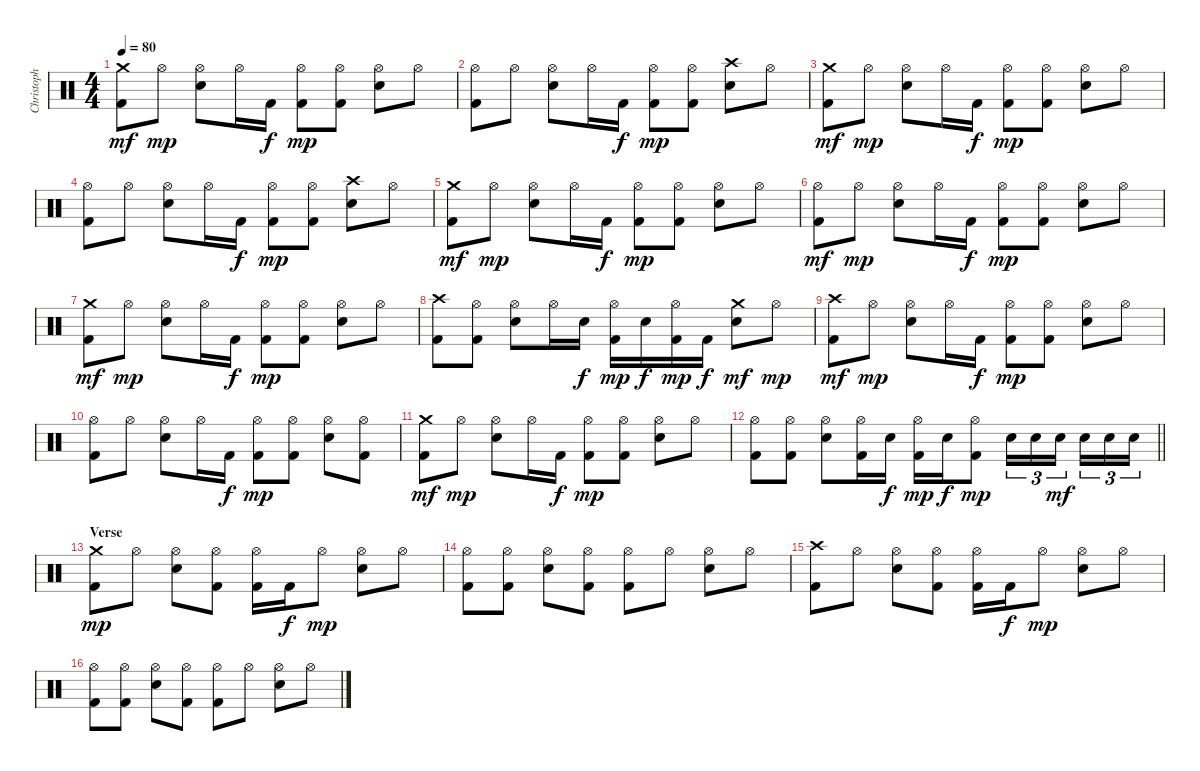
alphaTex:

\track ("Christoph Schneider // Drums" "Christoph ") {instrument percussion}
\staff {score}
\articulation defaults
\ts (4 4)
\tempo 80
\clef neutral
\ks c
("Crash medium (hit)" "Kick (hit) 2").8{dy mf} "Hi-Hat (open)".8{dy mp} ("Hi-Hat (open)" "Snare (hit) 2").8 "Hi-Hat (open)".16 "Kick (hit) 2".16{dy f} ("Hi-Hat (open)" "Kick (hit) 2").8{dy mp} ("Hi-Hat (open)" "Kick (hit) 2").8 ("Hi-Hat (open)" "Snare (hit) 2").8 "Hi-Hat (open)".8 |
("Hi-Hat (open)" "Kick (hit) 2").8 "Hi-Hat (open)".8 ("Hi-Hat (open)" "Snare (hit) 2").8 "Hi-Hat (open)".16 "Kick (hit) 2".16{dy f} ("Hi-Hat (open)" "Kick (hit) 2").8{dy mp} ("Hi-Hat (open)" "Kick (hit) 2").8 ("Crash high (hit)" "Snare (hit) 2").8 "Hi-Hat (open)".8 |
("Crash medium (hit)" "Kick (hit) 2").8{dy mf} "Hi-Hat (open)".8{dy mp} ("Hi-Hat (open)" "Snare (hit) 2").8 "Hi-Hat (open)".16 "Kick (hit) 2".16{dy f} ("Hi-Hat (open)" "Kick (hit) 2").8{dy mp} ("Hi-Hat (open)" "Kick (hit) 2").8 ("Hi-Hat (open)" "Snare (hit) 2").8 "Hi-Hat (open)".8 |
("Hi-Hat (open)" "Kick (hit) 2").8 "Hi-Hat (open)".8 ("Hi-Hat (open)" "Snare (hit) 2").8 "Hi-Hat (open)".16 "Kick (hit) 2".16{dy f} ("Hi-Hat (open)" "Kick (hit) 2").8{dy mp} ("Hi-Hat (open)" "Kick (hit) 2").8 ("Crash high (hit)" "Snare (hit) 2").8 "Hi-Hat (open)".8 |
("Crash medium (hit)" "Kick (hit) 2").8{dy mf} "Hi-Hat (open)".8{dy mp} ("Hi-Hat (open)" "Snare (hit) 2").8 "Hi-Hat (open)".16 "Kick (hit) 2".16{dy f} ("Hi-Hat (open)" "Kick (hit) 2").8{dy mp} ("Hi-Hat (open)" "Kick (hit) 2").8 ("Hi-Hat (open)" "Snare (hit) 2").8 "Hi-Hat (open)".8 |
("Hi-Hat (open)" "Kick (hit) 2").8{dy mf} "Hi-Hat (open)".8{dy mp} ("Hi-Hat (open)" "Snare (hit) 2").8 "Hi-Hat (open)".16 "Kick (hit) 2".16{dy f} ("Hi-Hat (open)" "Kick (hit) 2").8{dy mp} ("Hi-Hat (open)" "Kick (hit) 2").8 ("Hi-Hat (open)" "Snare (hit) 2").8 "Hi-Hat (open)".8 |
("Crash medium (hit)" "Kick (hit) 2").8{dy mf} "Hi-Hat (open)".8{dy mp} ("Hi-Hat (open)" "Snare (hit) 2").8 "Hi-Hat (open)".16 "Kick (hit) 2".16{dy f} ("Hi-Hat (open)" "Kick (hit) 2").8{dy mp} ("Hi-Hat (open)" "Kick (hit) 2").8 ("Hi-Hat (open)" "Snare (hit) 2").8 "Hi-Hat (open)".8 |
("Crash high (hit)" "Kick (hit) 2").8 ("Hi-Hat (open)" "Kick (hit) 2").8 ("Hi-Hat (open)" "Snare (hit) 2").8 "Hi-Hat (open)".16 "Snare (hit) 2".16{dy f} ("Hi-Hat (open)" "Kick (hit) 2").16{dy mp} "Snare (hit) 2".16{dy f} ("Hi-Hat (open)" "Kick (hit) 2").16{dy mp} "Kick (hit) 2".16{dy f} ("Crash medium (hit)" "Snare (hit) 2").8{dy mf} "Hi-Hat (open)".8{dy mp} |
("Crash high (hit)" "Kick (hit) 2").8{dy mf} "Hi-Hat (open)".8{dy mp} ("Hi-Hat (open)" "Snare (hit) 2").8 "Hi-Hat (open)".16 "Kick (hit) 2".16{dy f} ("Hi-Hat (open)" "Kick (hit) 2").8{dy mp} ("Hi-Hat (open)" "Kick (hit) 2").8 ("Hi-Hat (open)" "Snare (hit) 2").8 "Hi-Hat (open)".8 |
("Hi-Hat (open)" "Kick (hit) 2").8 "Hi-Hat (open)".8 ("Hi-Hat (open)" "Snare (hit) 2").8 "Hi-Hat (open)".16 "Kick (hit) 2".16{dy f} ("Hi-Hat (open)" "Kick (hit) 2").8{dy mp} ("Hi-Hat (open)" "Kick (hit) 2").8 ("Hi-Hat (open)" "Snare (hit) 2").8 ("Hi-Hat (open)" "Kick (hit) 2").8 |
("Crash medium (hit)" "Kick (hit) 2").8{dy mf} "Hi-Hat (open)".8{dy mp} ("Hi-Hat (open)" "Snare (hit) 2").8 "Hi-Hat (open)".16 "Kick (hit) 2".16{dy f} ("Hi-Hat (open)" "Kick (hit) 2").8{dy mp} ("Hi-Hat (open)" "Kick (hit) 2").8 ("Hi-Hat (open)" "Snare (hit) 2").8 "Hi-Hat (open)".8 |
\barLineRight lightlight
("Hi-Hat (open)" "Kick (hit) 2").8 ("Hi-Hat (open)" "Kick (hit) 2").8 ("Hi-Hat (open)" "Snare (hit) 2").8 ("Hi-Hat (open)" "Kick (hit) 2").16 "Snare (hit) 2".16{dy f} ("Hi-Hat (open)" "Kick (hit) 2").16{dy mp} "Snare (hit) 2".16{dy f} ("Hi-Hat (open)" "Kick (hit) 2").8{dy mp} "Snare (hit) 2".16{tu (3 2)} "Snare (hit) 2".16{tu (3 2)} "Snare (hit) 2".16{tu (3 2) dy mf beam splitsecondary} "Snare (hit) 2".16{tu (3 2)} "Snare (hit) 2".16{tu (3 2)} "Snare (hit) 2".16{tu (3 2)} |
\section ("" "Verse")
("Crash medium (hit)" "Kick (hit) 2").8{dy mp} "Hi-Hat (open)".8 ("Hi-Hat (open)" "Snare (hit) 2").8 ("Hi-Hat (open)" "Kick (hit) 2").8 ("Hi-Hat (open)" "Kick (hit) 2").16 "Kick (hit) 2".16{dy f} "Hi-Hat (open)".8{dy mp} ("Hi-Hat (open)" "Snare (hit) 2").8 "Hi-Hat (open)".8 |
("Hi-Hat (open)" "Kick (hit) 2").8 ("Hi-Hat (open)" "Kick (hit) 2").8 ("Hi-Hat (open)" "Snare (hit) 2").8 ("Hi-Hat (open)" "Kick (hit) 2").8 ("Hi-Hat (open)" "Kick (hit) 2").8 "Hi-Hat (open)".8 ("Hi-Hat (open)" "Snare (hit) 2").8 "Hi-Hat (open)".8 |
("Crash high (hit)" "Kick (hit) 2").8 "Hi-Hat (open)".8 ("Hi-Hat (open)" "Snare (hit) 2").8 ("Hi-Hat (open)" "Kick (hit) 2").8 ("Hi-Hat (open)" "Kick (hit) 2").16 "Kick (hit) 2".16{dy f} "Hi-Hat (open)".8{dy mp} ("Hi-Hat (open)" "Snare (hit) 2").8 "Hi-Hat (open)".8 |
("Hi-Hat (open)" "Kick (hit) 2").8 ("Hi-Hat (open)" "Kick (hit) 2").8 ("Hi-Hat (open)" "Snare (hit) 2").8 ("Hi-Hat (open)" "Kick (hit) 2").8 ("Hi-Hat (open)" "Kick (hit) 2").8 "Hi-Hat (open)".8 ("Hi-Hat (open)" "Snare (hit) 2").8 "Hi-Hat (open)".8
